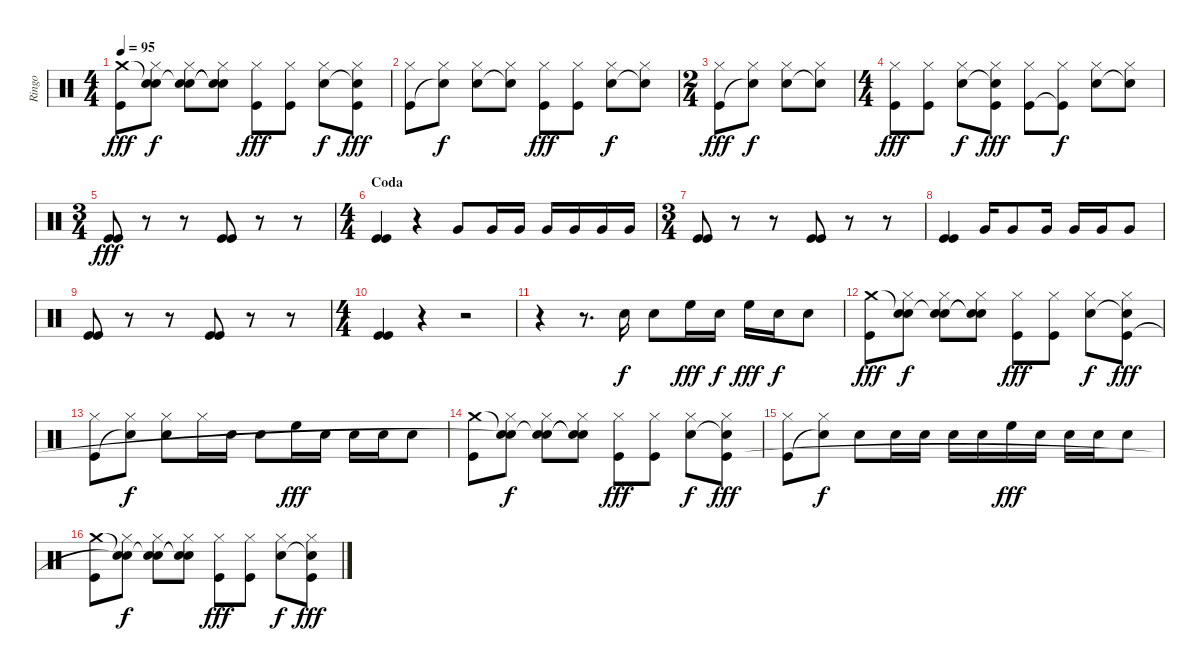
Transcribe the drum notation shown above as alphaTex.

\track ("Ringo" "Ringo") {instrument percussion}
\staff {score}
\articulation defaults
\ts (4 4)
\tempo 95
\clef neutral
\ks c
("Crash medium (hit)" "Kick (hit)").8{dy fff} ("Snare (hit)"{t} "Hi-Hat (closed)" "Snare (hit)"{t}).8{dy f} ("Snare (hit)"{t} "Hi-Hat (closed)" "Electric Snare (hit)").8 ("Snare (hit)"{t} "Hi-Hat (closed)" "Snare (hit)"{t}).8 ("Hi-Hat (closed)" "Kick (hit)").8{dy fff} ("Hi-Hat (closed)" "Kick (hit)").8 ("Hi-Hat (closed)" "Electric Snare (hit)").8{dy f} ("Hi-Hat (closed)" "Snare (hit)"{t} "Kick (hit)").8{dy fff} |
("Hi-Hat (closed)" "Kick (hit)").8 ("Hi-Hat (closed)" "Snare (hit)"{t}).8{dy f} ("Hi-Hat (closed)" "Electric Snare (hit)").8 ("Hi-Hat (closed)" "Snare (hit)"{t}).8 ("Hi-Hat (closed)" "Kick (hit)").8{dy fff} ("Hi-Hat (closed)" "Kick (hit)").8 ("Hi-Hat (closed)" "Electric Snare (hit)").8{dy f} ("Hi-Hat (closed)" "Snare (hit)"{t}).8 |
\ts (2 4)
("Hi-Hat (closed)" "Kick (hit)").8{dy fff} ("Hi-Hat (closed)" "Snare (hit)"{t}).8{dy f} ("Hi-Hat (closed)" "Electric Snare (hit)").8 ("Hi-Hat (closed)" "Snare (hit)"{t}).8 |
\ts (4 4)
("Hi-Hat (closed)" "Kick (hit)").8{dy fff} ("Hi-Hat (closed)" "Kick (hit)").8 ("Hi-Hat (closed)" "Electric Snare (hit)").8{dy f} ("Hi-Hat (closed)" "Snare (hit)"{t} "Kick (hit)").8{dy fff} ("Hi-Hat (closed)" "Kick (hit)").8 ("Hi-Hat (closed)" "Kick (hit)"{t}).8{dy f} ("Hi-Hat (closed)" "Electric Snare (hit)").8 ("Hi-Hat (closed)" "Snare (hit)"{t}).8 |
\ts (3 4)
("Kick (hit)" "Kick (hit)").8{dy fff} r.8 r.8 ("Kick (hit)" "Kick (hit)").8 r.8 r.8 |
\ts (4 4)
\section ("" "Coda")
("Kick (hit)" "Kick (hit)").4 r.4 "Very Low Tom (hit)".8 "Very Low Tom (hit)".16 "Very Low Tom (hit)".16 "Very Low Tom (hit)".16 "Very Low Tom (hit)".16 "Very Low Tom (hit)".16 "Very Low Tom (hit)".16 |
\ts (3 4)
("Kick (hit)" "Kick (hit)").8 r.8 r.8 ("Kick (hit)" "Kick (hit)").8 r.8 r.8 |
("Kick (hit)" "Kick (hit)").4 "Very Low Tom (hit)".16 "Very Low Tom (hit)".8 "Very Low Tom (hit)".16 "Very Low Tom (hit)".16 "Very Low Tom (hit)".16 "Very Low Tom (hit)".8 |
("Kick (hit)" "Kick (hit)").8 r.8 r.8 ("Kick (hit)" "Kick (hit)").8 r.8 r.8 |
\ts (4 4)
("Kick (hit)" "Kick (hit)").4 r.4 r.2 |
r.4 r.8{d} "Electric Snare (hit)".16{dy f} "Electric Snare (hit)".8 "High Floor Tom (hit)".16{dy fff} "Electric Snare (hit)".16{dy f} "High Floor Tom (hit)".16{dy fff} "Electric Snare (hit)".16{dy f} "Electric Snare (hit)".8 |
("Crash medium (hit)" "Kick (hit)").8{dy fff} ("Snare (hit)"{t} "Hi-Hat (closed)" "Snare (hit)").8{dy f} ("Snare (hit)"{t} "Hi-Hat (closed)" "Electric Snare (hit)").8 ("Snare (hit)"{t} "Hi-Hat (closed)" "Snare (hit)"{t}).8 ("Hi-Hat (closed)" "Kick (hit)").8{dy fff} ("Hi-Hat (closed)" "Kick (hit)").8 ("Hi-Hat (closed)" "Electric Snare (hit)").8{dy f} ("Hi-Hat (closed)" "Snare (hit)"{t} "Kick (hit)").8{dy fff} |
("Hi-Hat (closed)" "Kick (hit)").8 ("Hi-Hat (closed)" "Snare (hit)"{t}).8{dy f} ("Hi-Hat (closed)" "Electric Snare (hit)").8 "Hi-Hat (closed)".16 "Electric Snare (hit)".16 "Electric Snare (hit)".8 "High Floor Tom (hit)".16{dy fff} "Electric Snare (hit)".16 "Electric Snare (hit)".16 "Electric Snare (hit)".16 "Electric Snare (hit)".8 |
("Crash medium (hit)" "Kick (hit)").8 ("Snare (hit)"{t} "Hi-Hat (closed)" "Snare (hit)"{t}).8{dy f} ("Snare (hit)"{t} "Hi-Hat (closed)" "Electric Snare (hit)").8 ("Snare (hit)"{t} "Hi-Hat (closed)" "Snare (hit)"{t}).8 ("Hi-Hat (closed)" "Kick (hit)").8{dy fff} ("Hi-Hat (closed)" "Kick (hit)").8 ("Hi-Hat (closed)" "Electric Snare (hit)").8{dy f} ("Hi-Hat (closed)" "Snare (hit)"{t} "Kick (hit)").8{dy fff} |
("Hi-Hat (closed)" "Kick (hit)").8 ("Hi-Hat (closed)" "Snare (hit)"{t}).8{dy f} "Electric Snare (hit)".8 "Electric Snare (hit)".16 "Electric Snare (hit)".16 "Electric Snare (hit)".16 "Electric Snare (hit)".16 "High Floor Tom (hit)".16{dy fff} "Electric Snare (hit)".16 "Electric Snare (hit)".16 "Electric Snare (hit)".16 "Electric Snare (hit)".8 |
("Crash medium (hit)" "Kick (hit)").8 ("Snare (hit)"{t} "Hi-Hat (closed)" "Snare (hit)"{t}).8{dy f} ("Snare (hit)"{t} "Hi-Hat (closed)" "Electric Snare (hit)").8 ("Snare (hit)"{t} "Hi-Hat (closed)" "Snare (hit)"{t}).8 ("Hi-Hat (closed)" "Kick (hit)").8{dy fff} ("Hi-Hat (closed)" "Kick (hit)").8 ("Hi-Hat (closed)" "Electric Snare (hit)").8{dy f} ("Hi-Hat (closed)" "Snare (hit)"{t} "Kick (hit)").8{dy fff}
